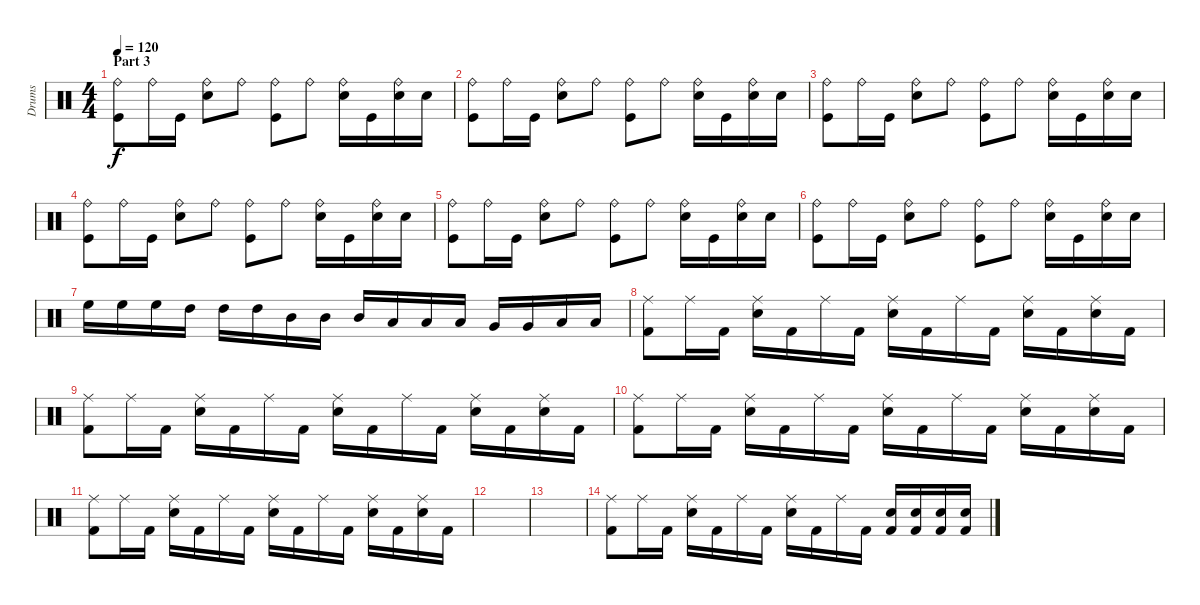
\track ("Drums" "Drums") {instrument percussion}
\staff {score}
\articulation defaults
\ts (4 4)
\section ("" "Part 3")
\tempo 120
\clef neutral
\ks c
("Ride (bell)" "Kick (hit)").8{dy f} "Ride (bell)".16 "Kick (hit)".16 ("Ride (bell)" "Snare (hit) 2").8 "Ride (bell)".8 ("Ride (bell)" "Kick (hit)").8 "Ride (bell)".8 ("Ride (bell)" "Snare (hit) 2").16 "Kick (hit)".16 ("Ride (bell)" "Snare (hit) 2").16 "Snare (hit) 2".16 |
("Ride (bell)" "Kick (hit)").8 "Ride (bell)".16 "Kick (hit)".16 ("Ride (bell)" "Snare (hit) 2").8 "Ride (bell)".8 ("Ride (bell)" "Kick (hit)").8 "Ride (bell)".8 ("Ride (bell)" "Snare (hit) 2").16 "Kick (hit)".16 ("Ride (bell)" "Snare (hit) 2").16 "Snare (hit) 2".16 |
("Ride (bell)" "Kick (hit)").8 "Ride (bell)".16 "Kick (hit)".16 ("Ride (bell)" "Snare (hit) 2").8 "Ride (bell)".8 ("Ride (bell)" "Kick (hit)").8 "Ride (bell)".8 ("Ride (bell)" "Snare (hit) 2").16 "Kick (hit)".16 ("Ride (bell)" "Snare (hit) 2").16 "Snare (hit) 2".16 |
("Ride (bell)" "Kick (hit)").8 "Ride (bell)".16 "Kick (hit)".16 ("Ride (bell)" "Snare (hit) 2").8 "Ride (bell)".8 ("Ride (bell)" "Kick (hit)").8 "Ride (bell)".8 ("Ride (bell)" "Snare (hit) 2").16 "Kick (hit)".16 ("Ride (bell)" "Snare (hit) 2").16 "Snare (hit) 2".16 |
("Ride (bell)" "Kick (hit)").8 "Ride (bell)".16 "Kick (hit)".16 ("Ride (bell)" "Snare (hit) 2").8 "Ride (bell)".8 ("Ride (bell)" "Kick (hit)").8 "Ride (bell)".8 ("Ride (bell)" "Snare (hit) 2").16 "Kick (hit)".16 ("Ride (bell)" "Snare (hit) 2").16 "Snare (hit) 2".16 |
("Ride (bell)" "Kick (hit)").8 "Ride (bell)".16 "Kick (hit)".16 ("Ride (bell)" "Snare (hit) 2").8 "Ride (bell)".8 ("Ride (bell)" "Kick (hit)").8 "Ride (bell)".8 ("Ride (bell)" "Snare (hit) 2").16 "Kick (hit)".16 ("Ride (bell)" "Snare (hit) 2").16 "Snare (hit) 2".16 |
"High Floor Tom (hit)".16 "High Floor Tom (hit)".16 "High Floor Tom (hit)".16 "High Tom (hit)".16 "High Tom (hit)".16 "High Tom (hit)".16 "Mid Tom (hit)".16 "Mid Tom (hit)".16 "Mid Tom (hit)".16 "Low Tom (hit)".16 "Low Tom (hit)".16 "Low Tom (hit)".16 "Very Low Tom (hit)".16 "Very Low Tom (hit)".16 "Low Floor Tom (hit)".16 "Low Floor Tom (hit)".16 |
("Ride (middle)" "Kick (hit) 2").8 "Ride (middle)".16 "Kick (hit) 2".16 ("Ride (middle)" "Electric Snare (hit)").16 "Kick (hit) 2".16 "Ride (middle)".16 "Kick (hit) 2".16 ("Ride (middle)" "Electric Snare (hit)").16 "Kick (hit) 2".16 "Ride (middle)".16 "Kick (hit) 2".16 ("Ride (middle)" "Electric Snare (hit)").16 "Kick (hit) 2".16 ("Ride (middle)" "Electric Snare (hit)").16 "Kick (hit) 2".16 |
("Ride (middle)" "Kick (hit) 2").8 "Ride (middle)".16 "Kick (hit) 2".16 ("Ride (middle)" "Electric Snare (hit)").16 "Kick (hit) 2".16 "Ride (middle)".16 "Kick (hit) 2".16 ("Ride (middle)" "Electric Snare (hit)").16 "Kick (hit) 2".16 "Ride (middle)".16 "Kick (hit) 2".16 ("Ride (middle)" "Electric Snare (hit)").16 "Kick (hit) 2".16 ("Ride (middle)" "Electric Snare (hit)").16 "Kick (hit) 2".16 |
("Ride (middle)" "Kick (hit) 2").8 "Ride (middle)".16 "Kick (hit) 2".16 ("Ride (middle)" "Electric Snare (hit)").16 "Kick (hit) 2".16 "Ride (middle)".16 "Kick (hit) 2".16 ("Ride (middle)" "Electric Snare (hit)").16 "Kick (hit) 2".16 "Ride (middle)".16 "Kick (hit) 2".16 ("Ride (middle)" "Electric Snare (hit)").16 "Kick (hit) 2".16 ("Ride (middle)" "Electric Snare (hit)").16 "Kick (hit) 2".16 |
("Ride (middle)" "Kick (hit) 2").8 "Ride (middle)".16 "Kick (hit) 2".16 ("Ride (middle)" "Electric Snare (hit)").16 "Kick (hit) 2".16 "Ride (middle)".16 "Kick (hit) 2".16 ("Ride (middle)" "Electric Snare (hit)").16 "Kick (hit) 2".16 "Ride (middle)".16 "Kick (hit) 2".16 ("Ride (middle)" "Electric Snare (hit)").16 "Kick (hit) 2".16 ("Ride (middle)" "Electric Snare (hit)").16 "Kick (hit) 2".16 |
|
|
("Ride (middle)" "Kick (hit) 2").8 "Ride (middle)".16 "Kick (hit) 2".16 ("Ride (middle)" "Electric Snare (hit)").16 "Kick (hit) 2".16 "Ride (middle)".16 "Kick (hit) 2".16 ("Ride (middle)" "Electric Snare (hit)").16 "Kick (hit) 2".16 "Ride (middle)".16 "Kick (hit) 2".16 ("Electric Snare (hit)" "Kick (hit) 2").16 ("Electric Snare (hit)" "Kick (hit) 2").16 ("Electric Snare (hit)" "Kick (hit) 2").16 ("Electric Snare (hit)" "Kick (hit) 2").16
